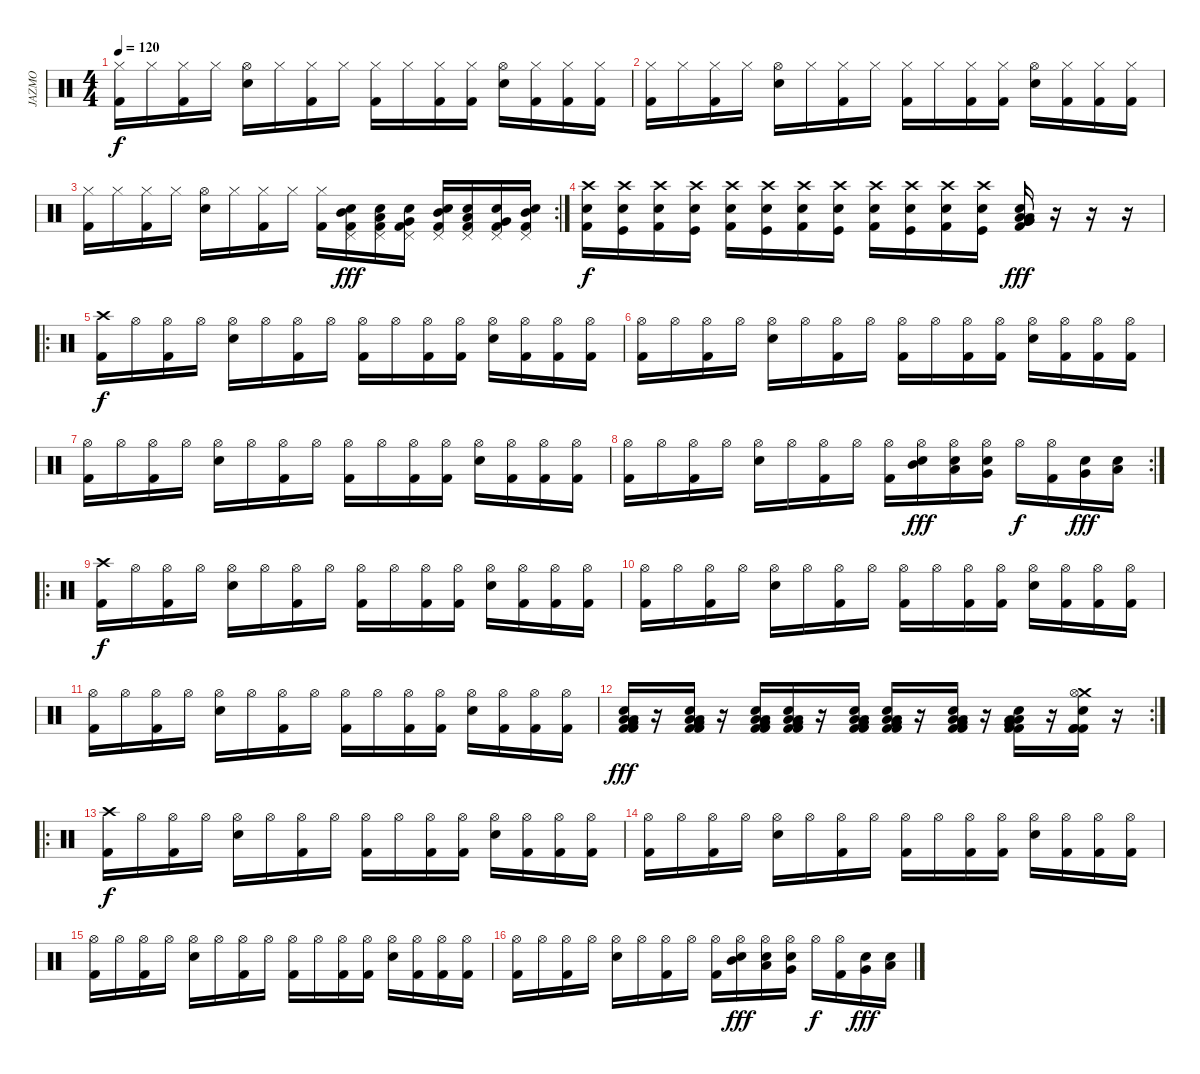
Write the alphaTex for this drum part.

\track ("JAZMO" "JAZMO") {instrument percussion}
\staff {score}
\articulation defaults
\ts (4 4)
\tempo 120
\clef neutral
\ks c
("Hi-Hat (closed)" "Kick (hit) 2").16{dy f} "Hi-Hat (closed)".16 ("Hi-Hat (closed)" "Kick (hit) 2").16 "Hi-Hat (closed)".16 ("Hi-Hat (open)" "Electric Snare (hit)").16 "Hi-Hat (closed)".16 ("Hi-Hat (closed)" "Kick (hit) 2").16 "Hi-Hat (closed)".16 ("Hi-Hat (closed)" "Kick (hit) 2").16 "Hi-Hat (closed)".16 ("Hi-Hat (closed)" "Kick (hit) 2").16 ("Hi-Hat (closed)" "Kick (hit) 2").16 ("Hi-Hat (open)" "Electric Snare (hit)").16 ("Hi-Hat (closed)" "Kick (hit) 2").16 ("Hi-Hat (closed)" "Kick (hit) 2").16 ("Hi-Hat (closed)" "Kick (hit) 2").16 |
("Hi-Hat (closed)" "Kick (hit) 2").16 "Hi-Hat (closed)".16 ("Hi-Hat (closed)" "Kick (hit) 2").16 "Hi-Hat (closed)".16 ("Hi-Hat (open)" "Electric Snare (hit)").16 "Hi-Hat (closed)".16 ("Hi-Hat (closed)" "Kick (hit) 2").16 "Hi-Hat (closed)".16 ("Hi-Hat (closed)" "Kick (hit) 2").16 "Hi-Hat (closed)".16 ("Hi-Hat (closed)" "Kick (hit) 2").16 ("Hi-Hat (closed)" "Kick (hit) 2").16 ("Hi-Hat (open)" "Electric Snare (hit)").16 ("Hi-Hat (closed)" "Kick (hit) 2").16 ("Hi-Hat (closed)" "Kick (hit) 2").16 ("Hi-Hat (closed)" "Kick (hit) 2").16 |
\rc 2
("Hi-Hat (closed)" "Kick (hit) 2").16 "Hi-Hat (closed)".16 ("Hi-Hat (closed)" "Kick (hit) 2").16 "Hi-Hat (closed)".16 ("Hi-Hat (open)" "Electric Snare (hit)").16 "Hi-Hat (closed)".16 ("Hi-Hat (closed)" "Kick (hit) 2").16 "Hi-Hat (closed)".16 ("Hi-Hat (closed)" "Kick (hit) 2").16 ("Pedal Hi-Hat (hit)" "Mid Tom (hit)" "Electric Snare (hit)" "Kick (hit) 2").16{dy fff} ("Pedal Hi-Hat (hit)" "Low Tom (hit)" "Electric Snare (hit)" "Kick (hit) 2").16 ("Pedal Hi-Hat (hit)" "Very Low Tom (hit)" "Electric Snare (hit)" "Kick (hit) 2").16 ("Pedal Hi-Hat (hit)" "Mid Tom (hit)" "Electric Snare (hit)" "Kick (hit) 2").16 ("Pedal Hi-Hat (hit)" "Low Tom (hit)" "Electric Snare (hit)" "Kick (hit) 2").16 ("Pedal Hi-Hat (hit)" "Very Low Tom (hit)" "Electric Snare (hit)" "Kick (hit) 2").16 ("Pedal Hi-Hat (hit)" "Mid Tom (hit)" "Electric Snare (hit)" "Kick (hit) 2").16 |
("Kick (hit) 2" "Crash high (hit)" "Electric Snare (hit)").16{dy f} ("Kick (hit)" "Crash high (hit)" "Electric Snare (hit)").16 ("Kick (hit) 2" "Crash high (hit)" "Electric Snare (hit)").16 ("Kick (hit)" "Crash high (hit)" "Electric Snare (hit)").16 ("Kick (hit) 2" "Crash high (hit)" "Electric Snare (hit)").16 ("Kick (hit)" "Crash high (hit)" "Electric Snare (hit)").16 ("Kick (hit) 2" "Crash high (hit)" "Electric Snare (hit)").16 ("Kick (hit)" "Crash high (hit)" "Electric Snare (hit)").16 ("Kick (hit) 2" "Crash high (hit)" "Electric Snare (hit)").16 ("Kick (hit)" "Crash high (hit)" "Electric Snare (hit)").16 ("Kick (hit) 2" "Crash high (hit)" "Electric Snare (hit)").16 ("Kick (hit)" "Crash high (hit)" "Electric Snare (hit)").16 ("Low Floor Tom (hit)" "Very Low Tom (hit)" "Low Floor Tom (hit)" "Kick (hit) 2" "Very Low Tom (hit)" "Electric Snare (hit)").16{dy fff} r.16 r.16 r.16 |
\ro
("Crash high (hit)" "Kick (hit) 2").16{dy f} "Hi-Hat (open)".16 ("Hi-Hat (open)" "Kick (hit) 2").16 "Hi-Hat (open)".16 ("Hi-Hat (open)" "Electric Snare (hit)").16 "Hi-Hat (open)".16 ("Hi-Hat (open)" "Kick (hit) 2").16 "Hi-Hat (open)".16 ("Hi-Hat (open)" "Kick (hit) 2").16 "Hi-Hat (open)".16 ("Hi-Hat (open)" "Kick (hit) 2").16 ("Hi-Hat (open)" "Kick (hit) 2").16 ("Hi-Hat (open)" "Electric Snare (hit)").16 ("Hi-Hat (open)" "Kick (hit) 2").16 ("Hi-Hat (open)" "Kick (hit) 2").16 ("Hi-Hat (open)" "Kick (hit) 2").16 |
("Hi-Hat (open)" "Kick (hit) 2").16 "Hi-Hat (open)".16 ("Hi-Hat (open)" "Kick (hit) 2").16 "Hi-Hat (open)".16 ("Hi-Hat (open)" "Electric Snare (hit)").16 "Hi-Hat (open)".16 ("Hi-Hat (open)" "Kick (hit) 2").16 "Hi-Hat (open)".16 ("Hi-Hat (open)" "Kick (hit) 2").16 "Hi-Hat (open)".16 ("Hi-Hat (open)" "Kick (hit) 2").16 ("Hi-Hat (open)" "Kick (hit) 2").16 ("Hi-Hat (open)" "Electric Snare (hit)").16 ("Hi-Hat (open)" "Kick (hit) 2").16 ("Hi-Hat (open)" "Kick (hit) 2").16 ("Hi-Hat (open)" "Kick (hit) 2").16 |
("Hi-Hat (open)" "Kick (hit) 2").16 "Hi-Hat (open)".16 ("Hi-Hat (open)" "Kick (hit) 2").16 "Hi-Hat (open)".16 ("Hi-Hat (open)" "Electric Snare (hit)").16 "Hi-Hat (open)".16 ("Hi-Hat (open)" "Kick (hit) 2").16 "Hi-Hat (open)".16 ("Hi-Hat (open)" "Kick (hit) 2").16 "Hi-Hat (open)".16 ("Hi-Hat (open)" "Kick (hit) 2").16 ("Hi-Hat (open)" "Kick (hit) 2").16 ("Hi-Hat (open)" "Electric Snare (hit)").16 ("Hi-Hat (open)" "Kick (hit) 2").16 ("Hi-Hat (open)" "Kick (hit) 2").16 ("Hi-Hat (open)" "Kick (hit) 2").16 |
\rc 2
("Hi-Hat (open)" "Kick (hit) 2").16 "Hi-Hat (open)".16 ("Hi-Hat (open)" "Kick (hit) 2").16 "Hi-Hat (open)".16 ("Hi-Hat (open)" "Electric Snare (hit)").16 "Hi-Hat (open)".16 ("Hi-Hat (open)" "Kick (hit) 2").16 "Hi-Hat (open)".16 ("Hi-Hat (open)" "Kick (hit) 2").16 ("Hi-Hat (open)" "Mid Tom (hit)" "Electric Snare (hit)").16{dy fff} ("Hi-Hat (open)" "Low Tom (hit)" "Electric Snare (hit)").16 ("Hi-Hat (open)" "Very Low Tom (hit)" "Electric Snare (hit)").16 "Hi-Hat (open)".16{dy f} ("Hi-Hat (open)" "Kick (hit) 2").16 ("Very Low Tom (hit)" "Electric Snare (hit)").16{dy fff} ("Low Floor Tom (hit)" "Electric Snare (hit)").16 |
\ro
("Crash high (hit)" "Kick (hit) 2").16{dy f} "Hi-Hat (open)".16 ("Hi-Hat (open)" "Kick (hit) 2").16 "Hi-Hat (open)".16 ("Hi-Hat (open)" "Electric Snare (hit)").16 "Hi-Hat (open)".16 ("Hi-Hat (open)" "Kick (hit) 2").16 "Hi-Hat (open)".16 ("Hi-Hat (open)" "Kick (hit) 2").16 "Hi-Hat (open)".16 ("Hi-Hat (open)" "Kick (hit) 2").16 ("Hi-Hat (open)" "Kick (hit) 2").16 ("Hi-Hat (open)" "Electric Snare (hit)").16 ("Hi-Hat (open)" "Kick (hit) 2").16 ("Hi-Hat (open)" "Kick (hit) 2").16 ("Hi-Hat (open)" "Kick (hit) 2").16 |
("Hi-Hat (open)" "Kick (hit) 2").16 "Hi-Hat (open)".16 ("Hi-Hat (open)" "Kick (hit) 2").16 "Hi-Hat (open)".16 ("Hi-Hat (open)" "Electric Snare (hit)").16 "Hi-Hat (open)".16 ("Hi-Hat (open)" "Kick (hit) 2").16 "Hi-Hat (open)".16 ("Hi-Hat (open)" "Kick (hit) 2").16 "Hi-Hat (open)".16 ("Hi-Hat (open)" "Kick (hit) 2").16 ("Hi-Hat (open)" "Kick (hit) 2").16 ("Hi-Hat (open)" "Electric Snare (hit)").16 ("Hi-Hat (open)" "Kick (hit) 2").16 ("Hi-Hat (open)" "Kick (hit) 2").16 ("Hi-Hat (open)" "Kick (hit) 2").16 |
("Hi-Hat (open)" "Kick (hit) 2").16 "Hi-Hat (open)".16 ("Hi-Hat (open)" "Kick (hit) 2").16 "Hi-Hat (open)".16 ("Hi-Hat (open)" "Electric Snare (hit)").16 "Hi-Hat (open)".16 ("Hi-Hat (open)" "Kick (hit) 2").16 "Hi-Hat (open)".16 ("Hi-Hat (open)" "Kick (hit) 2").16 "Hi-Hat (open)".16 ("Hi-Hat (open)" "Kick (hit) 2").16 ("Hi-Hat (open)" "Kick (hit) 2").16 ("Hi-Hat (open)" "Electric Snare (hit)").16 ("Hi-Hat (open)" "Kick (hit) 2").16 ("Hi-Hat (open)" "Kick (hit) 2").16 ("Hi-Hat (open)" "Kick (hit) 2").16 |
\rc 2
("Kick (hit) 2" "Low Floor Tom (hit)" "Very Low Tom (hit)" "Low Floor Tom (hit)" "Electric Snare (hit)" "Kick (hit) 2").16{dy fff} r.16 ("Kick (hit) 2" "Low Floor Tom (hit)" "Very Low Tom (hit)" "Low Floor Tom (hit)" "Electric Snare (hit)" "Kick (hit) 2").16 r.16 ("Kick (hit) 2" "Low Floor Tom (hit)" "Very Low Tom (hit)" "Low Floor Tom (hit)" "Electric Snare (hit)" "Kick (hit) 2").16 ("Kick (hit) 2" "Low Floor Tom (hit)" "Very Low Tom (hit)" "Low Floor Tom (hit)" "Electric Snare (hit)" "Kick (hit) 2").16 r.16 ("Kick (hit) 2" "Low Floor Tom (hit)" "Very Low Tom (hit)" "Low Floor Tom (hit)" "Electric Snare (hit)" "Kick (hit) 2").16 ("Kick (hit) 2" "Low Floor Tom (hit)" "Very Low Tom (hit)" "Low Floor Tom (hit)" "Electric Snare (hit)" "Kick (hit) 2").16 r.16 ("Kick (hit) 2" "Low Floor Tom (hit)" "Very Low Tom (hit)" "Low Floor Tom (hit)" "Electric Snare (hit)" "Kick (hit) 2").16 r.16 ("Kick (hit) 2" "Low Floor Tom (hit)" "Very Low Tom (hit)" "Low Floor Tom (hit)" "Electric Snare (hit)" "Kick (hit) 2").16 r.16 ("Crash medium (hit)" "Hi-Hat (open)" "Kick (hit) 2" "Kick (hit) 2" "Electric Snare (hit)" "Kick (hit) 2").16 r.16 |
\ro
("Crash high (hit)" "Kick (hit) 2").16{dy f} "Hi-Hat (open)".16 ("Hi-Hat (open)" "Kick (hit) 2").16 "Hi-Hat (open)".16 ("Hi-Hat (open)" "Electric Snare (hit)").16 "Hi-Hat (open)".16 ("Hi-Hat (open)" "Kick (hit) 2").16 "Hi-Hat (open)".16 ("Hi-Hat (open)" "Kick (hit) 2").16 "Hi-Hat (open)".16 ("Hi-Hat (open)" "Kick (hit) 2").16 ("Hi-Hat (open)" "Kick (hit) 2").16 ("Hi-Hat (open)" "Electric Snare (hit)").16 ("Hi-Hat (open)" "Kick (hit) 2").16 ("Hi-Hat (open)" "Kick (hit) 2").16 ("Hi-Hat (open)" "Kick (hit) 2").16 |
("Hi-Hat (open)" "Kick (hit) 2").16 "Hi-Hat (open)".16 ("Hi-Hat (open)" "Kick (hit) 2").16 "Hi-Hat (open)".16 ("Hi-Hat (open)" "Electric Snare (hit)").16 "Hi-Hat (open)".16 ("Hi-Hat (open)" "Kick (hit) 2").16 "Hi-Hat (open)".16 ("Hi-Hat (open)" "Kick (hit) 2").16 "Hi-Hat (open)".16 ("Hi-Hat (open)" "Kick (hit) 2").16 ("Hi-Hat (open)" "Kick (hit) 2").16 ("Hi-Hat (open)" "Electric Snare (hit)").16 ("Hi-Hat (open)" "Kick (hit) 2").16 ("Hi-Hat (open)" "Kick (hit) 2").16 ("Hi-Hat (open)" "Kick (hit) 2").16 |
("Hi-Hat (open)" "Kick (hit) 2").16 "Hi-Hat (open)".16 ("Hi-Hat (open)" "Kick (hit) 2").16 "Hi-Hat (open)".16 ("Hi-Hat (open)" "Electric Snare (hit)").16 "Hi-Hat (open)".16 ("Hi-Hat (open)" "Kick (hit) 2").16 "Hi-Hat (open)".16 ("Hi-Hat (open)" "Kick (hit) 2").16 "Hi-Hat (open)".16 ("Hi-Hat (open)" "Kick (hit) 2").16 ("Hi-Hat (open)" "Kick (hit) 2").16 ("Hi-Hat (open)" "Electric Snare (hit)").16 ("Hi-Hat (open)" "Kick (hit) 2").16 ("Hi-Hat (open)" "Kick (hit) 2").16 ("Hi-Hat (open)" "Kick (hit) 2").16 |
("Hi-Hat (open)" "Kick (hit) 2").16 "Hi-Hat (open)".16 ("Hi-Hat (open)" "Kick (hit) 2").16 "Hi-Hat (open)".16 ("Hi-Hat (open)" "Electric Snare (hit)").16 "Hi-Hat (open)".16 ("Hi-Hat (open)" "Kick (hit) 2").16 "Hi-Hat (open)".16 ("Hi-Hat (open)" "Kick (hit) 2").16 ("Hi-Hat (open)" "Mid Tom (hit)" "Electric Snare (hit)").16{dy fff} ("Hi-Hat (open)" "Low Tom (hit)" "Electric Snare (hit)").16 ("Hi-Hat (open)" "Very Low Tom (hit)" "Electric Snare (hit)").16 "Hi-Hat (open)".16{dy f} ("Hi-Hat (open)" "Kick (hit) 2").16 ("Very Low Tom (hit)" "Electric Snare (hit)").16{dy fff} ("Low Floor Tom (hit)" "Electric Snare (hit)").16
